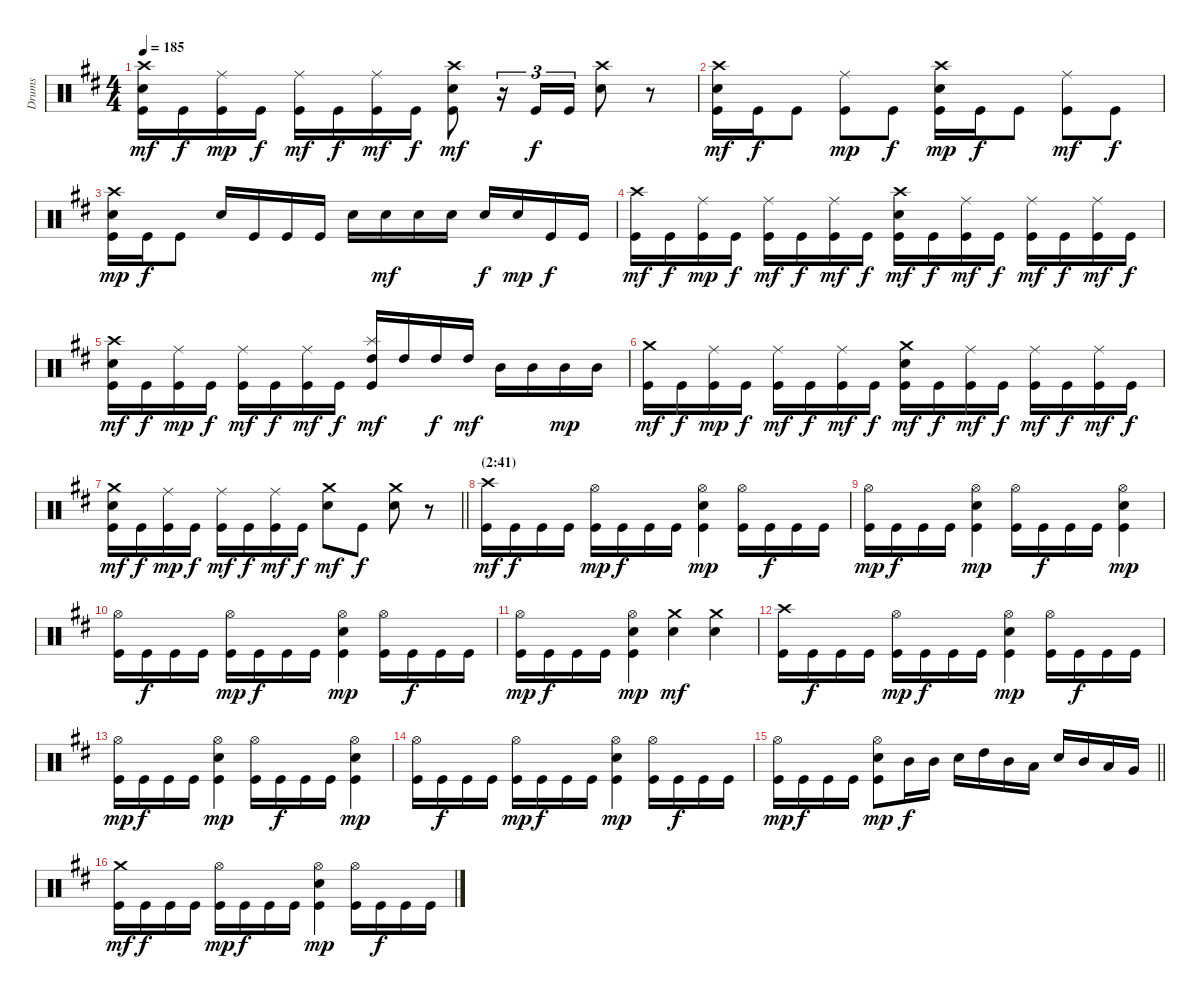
\track ("Drums" "Drums") {instrument percussion}
\staff {score}
\articulation defaults
\ts (4 4)
\tempo 185
\clef neutral
\ks bminor
("Crash high (hit)" "Snare (hit) 2" "Kick (hit)").16{dy mf} "Kick (hit)".16{dy f} ("Ride (middle)" "Kick (hit)").16{dy mp} "Kick (hit)".16{dy f} ("Ride (middle)" "Kick (hit)").16{dy mf} "Kick (hit)".16{dy f} ("Ride (middle)" "Kick (hit)").16{dy mf} "Kick (hit)".16{dy f} ("Crash high (hit)" "Snare (hit) 2" "Kick (hit)").8{dy mf} r.16{tu (3 2)} "Kick (hit)".16{tu (3 2) dy f} "Kick (hit)".16{tu (3 2)} ("Crash high (hit)" "Snare (hit) 2").8 r.8 |
("Crash high (hit)" "Snare (hit) 2" "Kick (hit)").16{dy mf} "Kick (hit)".16{dy f} "Kick (hit)".8 ("Ride (middle)" "Kick (hit)").8{dy mp} "Kick (hit)".8{dy f} ("Crash high (hit)" "Snare (hit) 2" "Kick (hit)").16{dy mp} "Kick (hit)".16{dy f} "Kick (hit)".8 ("Ride (middle)" "Kick (hit)").8{dy mf} "Kick (hit)".8{dy f} |
("Crash high (hit)" "Snare (hit) 2" "Kick (hit)").16{dy mp} "Kick (hit)".16{dy f} "Kick (hit)".8 "Snare (hit) 2".16 "Kick (hit)".16 "Kick (hit)".16 "Kick (hit)".16 "Snare (hit) 2".16 "Snare (hit) 2".16{dy mf} "Snare (hit) 2".16 "Snare (hit) 2".16 "Snare (hit) 2".16{dy f} "Snare (hit) 2".16{dy mp} "Kick (hit)".16{dy f} "Kick (hit)".16 |
("Crash high (hit)" "Kick (hit)").16{dy mf} "Kick (hit)".16{dy f} ("Ride (middle)" "Kick (hit)").16{dy mp} "Kick (hit)".16{dy f} ("Ride (middle)" "Kick (hit)").16{dy mf} "Kick (hit)".16{dy f} ("Ride (middle)" "Kick (hit)").16{dy mf} "Kick (hit)".16{dy f} ("Crash high (hit)" "Snare (hit) 2" "Kick (hit)").16{dy mf} "Kick (hit)".16{dy f} ("Ride (middle)" "Kick (hit)").16{dy mf} "Kick (hit)".16{dy f} ("Ride (middle)" "Kick (hit)").16{dy mf} "Kick (hit)".16{dy f} ("Ride (middle)" "Kick (hit)").16{dy mf} "Kick (hit)".16{dy f} |
("Crash high (hit)" "Snare (hit) 2" "Kick (hit)").16{dy mf} "Kick (hit)".16{dy f} ("Ride (middle)" "Kick (hit)").16{dy mp} "Kick (hit)".16{dy f} ("Ride (middle)" "Kick (hit)").16{dy mf} "Kick (hit)".16{dy f} ("Ride (middle)" "Kick (hit)").16{dy mf} "Kick (hit)".16{dy f} ("Splash (hit)" "High Tom (hit)" "Kick (hit)").16{dy mf} "High Tom (hit)".16 "High Tom (hit)".16{dy f} "High Tom (hit)".16{dy mf} "Mid Tom (hit)".16 "Mid Tom (hit)".16 "Mid Tom (hit)".16{dy mp} "Mid Tom (hit)".16 |
("Crash medium (hit)" "Kick (hit)").16{dy mf} "Kick (hit)".16{dy f} ("Ride (middle)" "Kick (hit)").16{dy mp} "Kick (hit)".16{dy f} ("Ride (middle)" "Kick (hit)").16{dy mf} "Kick (hit)".16{dy f} ("Ride (middle)" "Kick (hit)").16{dy mf} "Kick (hit)".16{dy f} ("Crash medium (hit)" "Snare (hit) 2" "Kick (hit)").16{dy mf} "Kick (hit)".16{dy f} ("Ride (middle)" "Kick (hit)").16{dy mf} "Kick (hit)".16{dy f} ("Ride (middle)" "Kick (hit)").16{dy mf} "Kick (hit)".16{dy f} ("Ride (middle)" "Kick (hit)").16{dy mf} "Kick (hit)".16{dy f} |
\barLineRight lightlight
("Crash medium (hit)" "Snare (hit) 2" "Kick (hit)").16{dy mf} "Kick (hit)".16{dy f} ("Ride (middle)" "Kick (hit)").16{dy mp} "Kick (hit)".16{dy f} ("Ride (middle)" "Kick (hit)").16{dy mf} "Kick (hit)".16{dy f} ("Ride (middle)" "Kick (hit)").16{dy mf} "Kick (hit)".16{dy f} ("Crash medium (hit)" "Snare (hit) 2").8{dy mf} "Kick (hit)".8{dy f} ("Crash medium (hit)" "Snare (hit) 2").8 r.8 |
\section ("" "(2:41)")
("Crash high (hit)" "Kick (hit)").16{dy mf} "Kick (hit)".16{dy f} "Kick (hit)".16 "Kick (hit)".16 ("Hi-Hat (open)" "Kick (hit)").16{dy mp} "Kick (hit)".16{dy f} "Kick (hit)".16 "Kick (hit)".16 ("Hi-Hat (open)" "Snare (hit) 2" "Kick (hit)").4{dy mp} ("Hi-Hat (open)" "Kick (hit)").16 "Kick (hit)".16{dy f} "Kick (hit)".16 "Kick (hit)".16 |
("Hi-Hat (open)" "Kick (hit)").16{dy mp} "Kick (hit)".16{dy f} "Kick (hit)".16 "Kick (hit)".16 ("Hi-Hat (open)" "Snare (hit) 2" "Kick (hit)").4{dy mp} ("Hi-Hat (open)" "Kick (hit)").16 "Kick (hit)".16{dy f} "Kick (hit)".16 "Kick (hit)".16 ("Hi-Hat (open)" "Snare (hit) 2" "Kick (hit)").4{dy mp} |
("Hi-Hat (open)" "Kick (hit)").16 "Kick (hit)".16{dy f} "Kick (hit)".16 "Kick (hit)".16 ("Hi-Hat (open)" "Kick (hit)").16{dy mp} "Kick (hit)".16{dy f} "Kick (hit)".16 "Kick (hit)".16 ("Hi-Hat (open)" "Snare (hit) 2" "Kick (hit)").4{dy mp} ("Hi-Hat (open)" "Kick (hit)").16 "Kick (hit)".16{dy f} "Kick (hit)".16 "Kick (hit)".16 |
("Hi-Hat (open)" "Kick (hit)").16{dy mp} "Kick (hit)".16{dy f} "Kick (hit)".16 "Kick (hit)".16 ("Hi-Hat (open)" "Snare (hit) 2" "Kick (hit)").4{dy mp} ("Crash medium (hit)" "Snare (hit) 2").4{dy mf} ("Crash medium (hit)" "Snare (hit) 2").4 |
("Crash high (hit)" "Kick (hit)").16 "Kick (hit)".16{dy f} "Kick (hit)".16 "Kick (hit)".16 ("Hi-Hat (open)" "Kick (hit)").16{dy mp} "Kick (hit)".16{dy f} "Kick (hit)".16 "Kick (hit)".16 ("Hi-Hat (open)" "Snare (hit) 2" "Kick (hit)").4{dy mp} ("Hi-Hat (open)" "Kick (hit)").16 "Kick (hit)".16{dy f} "Kick (hit)".16 "Kick (hit)".16 |
("Hi-Hat (open)" "Kick (hit)").16{dy mp} "Kick (hit)".16{dy f} "Kick (hit)".16 "Kick (hit)".16 ("Hi-Hat (open)" "Snare (hit) 2" "Kick (hit)").4{dy mp} ("Hi-Hat (open)" "Kick (hit)").16 "Kick (hit)".16{dy f} "Kick (hit)".16 "Kick (hit)".16 ("Hi-Hat (open)" "Snare (hit) 2" "Kick (hit)").4{dy mp} |
("Hi-Hat (open)" "Kick (hit)").16 "Kick (hit)".16{dy f} "Kick (hit)".16 "Kick (hit)".16 ("Hi-Hat (open)" "Kick (hit)").16{dy mp} "Kick (hit)".16{dy f} "Kick (hit)".16 "Kick (hit)".16 ("Hi-Hat (open)" "Snare (hit) 2" "Kick (hit)").4{dy mp} ("Hi-Hat (open)" "Kick (hit)").16 "Kick (hit)".16{dy f} "Kick (hit)".16 "Kick (hit)".16 |
\barLineRight lightlight
("Hi-Hat (open)" "Kick (hit)").16{dy mp} "Kick (hit)".16{dy f} "Kick (hit)".16 "Kick (hit)".16 ("Hi-Hat (open)" "Snare (hit) 2" "Kick (hit)").8{dy mp} "Mid Tom (hit)".16{dy f} "Mid Tom (hit)".16 "Snare (hit) 2".16 "High Tom (hit)".16 "Mid Tom (hit)".16 "Low Tom (hit)".16 "Snare (hit) 2".16 "Mid Tom (hit)".16 "Low Tom (hit)".16 "Very Low Tom (hit)".16 |
("Crash medium (hit)" "Kick (hit)").16{dy mf} "Kick (hit)".16{dy f} "Kick (hit)".16 "Kick (hit)".16 ("Hi-Hat (open)" "Kick (hit)").16{dy mp} "Kick (hit)".16{dy f} "Kick (hit)".16 "Kick (hit)".16 ("Hi-Hat (open)" "Snare (hit) 2" "Kick (hit)").4{dy mp} ("Hi-Hat (open)" "Kick (hit)").16 "Kick (hit)".16{dy f} "Kick (hit)".16 "Kick (hit)".16
